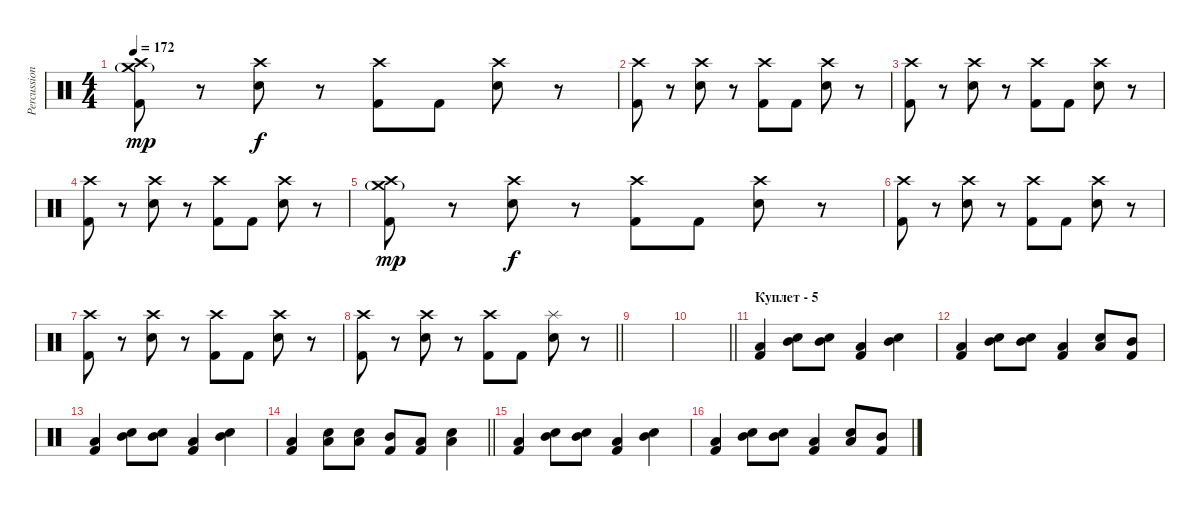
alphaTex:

\track ("Percussion" "Percussion") {instrument percussion}
\staff {score}
\articulation defaults
\ts (4 4)
\tempo 172
\clef neutral
\ks c
("Crash high (hit)" "Crash medium (hit)"{g} "Kick (hit) 2").8{dy mp} r.8 ("Crash high (hit)" "Snare (hit) 2").8{dy f} r.8 ("Crash high (hit)" "Kick (hit) 2").8 "Kick (hit) 2".8 ("Crash high (hit)" "Snare (hit) 2").8 r.8 |
("Crash high (hit)" "Kick (hit) 2").8 r.8 ("Crash high (hit)" "Snare (hit) 2").8 r.8 ("Crash high (hit)" "Kick (hit) 2").8 "Kick (hit) 2".8 ("Crash high (hit)" "Snare (hit) 2").8 r.8 |
("Crash high (hit)" "Kick (hit) 2").8 r.8 ("Crash high (hit)" "Snare (hit) 2").8 r.8 ("Crash high (hit)" "Kick (hit) 2").8 "Kick (hit) 2".8 ("Crash high (hit)" "Snare (hit) 2").8 r.8 |
("Crash high (hit)" "Kick (hit) 2").8 r.8 ("Crash high (hit)" "Snare (hit) 2").8 r.8 ("Crash high (hit)" "Kick (hit) 2").8 "Kick (hit) 2".8 ("Crash high (hit)" "Snare (hit) 2").8 r.8 |
("Crash high (hit)" "Crash medium (hit)"{g} "Kick (hit) 2").8{dy mp} r.8 ("Crash high (hit)" "Snare (hit) 2").8{dy f} r.8 ("Crash high (hit)" "Kick (hit) 2").8 "Kick (hit) 2".8 ("Crash high (hit)" "Snare (hit) 2").8 r.8 |
("Crash high (hit)" "Kick (hit) 2").8 r.8 ("Crash high (hit)" "Snare (hit) 2").8 r.8 ("Crash high (hit)" "Kick (hit) 2").8 "Kick (hit) 2".8 ("Crash high (hit)" "Snare (hit) 2").8 r.8 |
("Crash high (hit)" "Kick (hit) 2").8 r.8 ("Crash high (hit)" "Snare (hit) 2").8 r.8 ("Crash high (hit)" "Kick (hit) 2").8 "Kick (hit) 2".8 ("Crash high (hit)" "Snare (hit) 2").8 r.8 |
\barLineRight lightlight
("Crash high (hit)" "Kick (hit) 2").8 r.8 ("Crash high (hit)" "Snare (hit) 2").8 r.8 ("Crash high (hit)" "Kick (hit) 2").8 "Kick (hit) 2".8 ("Splash (hit)" "Snare (hit) 2").8 r.8 |
|
\barLineRight lightlight
|
\section ("" "Куплет - 5")
("Low Floor Tom (hit)" "Kick (hit) 2").4 ("Mid Tom (hit)" "Snare (hit) 2").8 ("Mid Tom (hit)" "Snare (hit) 2").8 ("Low Tom (hit)" "Kick (hit) 2").4 ("Mid Tom (hit)" "Snare (hit) 2").4 |
("Low Tom (hit)" "Kick (hit) 2").4 ("Mid Tom (hit)" "Snare (hit) 2").8 ("Mid Tom (hit)" "Snare (hit) 2").8 ("Low Tom (hit)" "Kick (hit) 2").4 ("Low Tom (hit)" "Snare (hit) 2").8 ("Mid Tom (hit)" "Kick (hit) 2").8 |
("Low Floor Tom (hit)" "Kick (hit) 2").4 ("Mid Tom (hit)" "Snare (hit) 2").8 ("Mid Tom (hit)" "Snare (hit) 2").8 ("Low Tom (hit)" "Kick (hit) 2").4 ("Mid Tom (hit)" "Snare (hit) 2").4 |
\barLineRight lightlight
("Low Tom (hit)" "Kick (hit) 2").4 ("Low Floor Tom (hit)" "Snare (hit) 2").8 ("Low Floor Tom (hit)" "Snare (hit) 2").8 ("Mid Tom (hit)" "Kick (hit) 2").8 ("Low Tom (hit)" "Kick (hit) 2").8 ("Low Floor Tom (hit)" "Snare (hit) 2").4 |
("Low Floor Tom (hit)" "Kick (hit) 2").4 ("Mid Tom (hit)" "Snare (hit) 2").8 ("Mid Tom (hit)" "Snare (hit) 2").8 ("Low Tom (hit)" "Kick (hit) 2").4 ("Mid Tom (hit)" "Snare (hit) 2").4 |
("Low Tom (hit)" "Kick (hit) 2").4 ("Mid Tom (hit)" "Snare (hit) 2").8 ("Mid Tom (hit)" "Snare (hit) 2").8 ("Low Tom (hit)" "Kick (hit) 2").4 ("Low Tom (hit)" "Snare (hit) 2").8 ("Mid Tom (hit)" "Kick (hit) 2").8
